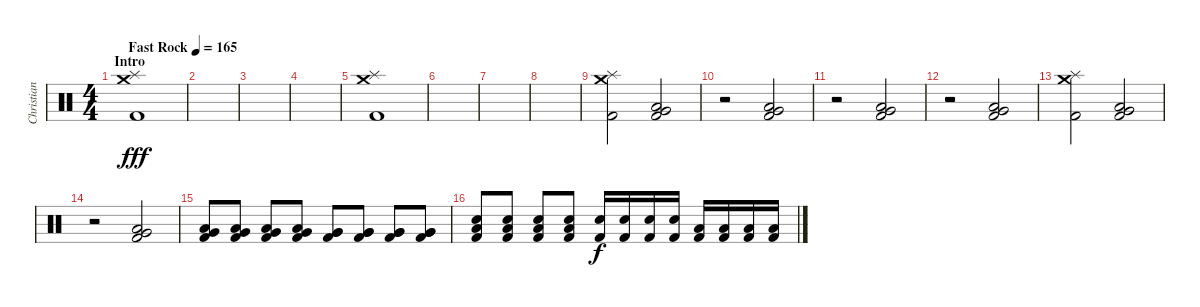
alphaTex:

\track ("Christian Coma Mora (CC)" "Christian ") {instrument percussion}
\staff {score}
\articulation defaults
\ts (4 4)
\section ("" "Intro")
\tempo (165 "Fast Rock")
\clef neutral
\ks c
("Crash medium (hit)" "Splash (hit)" "Kick (hit) 2").1{dy fff} |
|
|
|
("Crash medium (hit)" "Splash (hit)" "Kick (hit) 2").1 |
|
|
|
("Crash medium (hit)" "Splash (hit)" "Kick (hit) 2").2 ("Very Low Tom (hit)" "Low Floor Tom (hit)" "Kick (hit) 2").2 |
r.2 ("Very Low Tom (hit)" "Low Floor Tom (hit)" "Kick (hit) 2").2 |
r.2 ("Very Low Tom (hit)" "Low Floor Tom (hit)" "Kick (hit) 2").2 |
r.2 ("Very Low Tom (hit)" "Low Floor Tom (hit)" "Kick (hit) 2").2 |
("Crash medium (hit)" "Splash (hit)" "Kick (hit) 2").2 ("Very Low Tom (hit)" "Low Floor Tom (hit)" "Kick (hit) 2").2 |
r.2 ("Very Low Tom (hit)" "Low Floor Tom (hit)" "Kick (hit) 2").2 |
("Low Tom (hit)" "Very Low Tom (hit)" "Kick (hit) 2").8 ("Low Tom (hit)" "Very Low Tom (hit)" "Kick (hit) 2").8 ("Low Tom (hit)" "Very Low Tom (hit)" "Kick (hit) 2").8 ("Low Tom (hit)" "Very Low Tom (hit)" "Kick (hit) 2").8 ("Very Low Tom (hit)" "Very Low Tom (hit)" "Kick (hit) 2").8 ("Very Low Tom (hit)" "Very Low Tom (hit)" "Kick (hit) 2").8 ("Very Low Tom (hit)" "Very Low Tom (hit)" "Kick (hit) 2").8 ("Very Low Tom (hit)" "Very Low Tom (hit)" "Kick (hit) 2").8 |
("Low Floor Tom (hit)" "Snare (hit) 2" "Kick (hit) 2").8 ("Low Floor Tom (hit)" "Snare (hit) 2" "Kick (hit) 2").8 ("Low Floor Tom (hit)" "Snare (hit) 2" "Kick (hit) 2").8 ("Low Floor Tom (hit)" "Snare (hit) 2" "Kick (hit) 2").8 ("Snare (hit) 2" "Kick (hit) 2").16{dy f} ("Snare (hit) 2" "Kick (hit) 2").16 ("Snare (hit) 2" "Kick (hit) 2").16 ("Snare (hit) 2" "Kick (hit) 2").16 ("Low Tom (hit)" "Kick (hit) 2").16 ("Low Tom (hit)" "Kick (hit) 2").16 ("Low Tom (hit)" "Kick (hit) 2").16 ("Low Tom (hit)" "Kick (hit) 2").16
